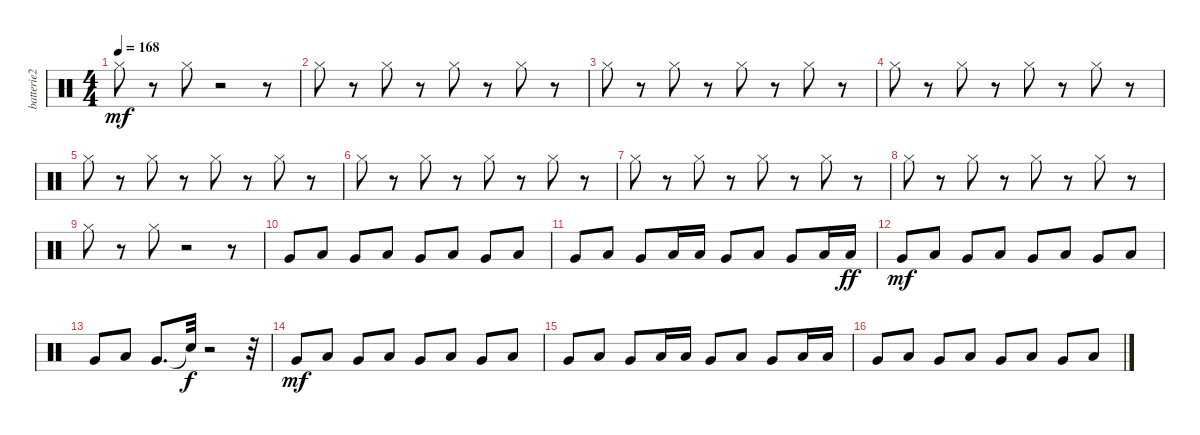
\track ("batterie2" "batterie2") {instrument percussion}
\staff {score}
\articulation defaults
\ts (4 4)
\tempo 168
\clef neutral
\ks c "Hi-Hat (closed)".8{dy mf}
r.8 "Hi-Hat (closed)".8 r.2 r.8 |
"Hi-Hat (closed)".8 r.8 "Hi-Hat (closed)".8 r.8 "Hi-Hat (closed)".8 r.8 "Hi-Hat (closed)".8 r.8 |
"Hi-Hat (closed)".8 r.8 "Hi-Hat (closed)".8 r.8 "Hi-Hat (closed)".8 r.8 "Hi-Hat (closed)".8 r.8 |
"Hi-Hat (closed)".8 r.8 "Hi-Hat (closed)".8 r.8 "Hi-Hat (closed)".8 r.8 "Hi-Hat (closed)".8 r.8 |
"Hi-Hat (closed)".8 r.8 "Hi-Hat (closed)".8 r.8 "Hi-Hat (closed)".8 r.8 "Hi-Hat (closed)".8 r.8 |
"Hi-Hat (closed)".8 r.8 "Hi-Hat (closed)".8 r.8 "Hi-Hat (closed)".8 r.8 "Hi-Hat (closed)".8 r.8 |
"Hi-Hat (closed)".8 r.8 "Hi-Hat (closed)".8 r.8 "Hi-Hat (closed)".8 r.8 "Hi-Hat (closed)".8 r.8 |
"Hi-Hat (closed)".8 r.8 "Hi-Hat (closed)".8 r.8 "Hi-Hat (closed)".8 r.8 "Hi-Hat (closed)".8 r.8 |
"Hi-Hat (closed)".8 r.8 "Hi-Hat (closed)".8 r.2 r.8 |
"Very Low Tom (hit)".8 "Low Tom (hit)".8 "Very Low Tom (hit)".8 "Low Tom (hit)".8 "Very Low Tom (hit)".8 "Low Tom (hit)".8 "Very Low Tom (hit)".8 "Low Tom (hit)".8 |
"Very Low Tom (hit)".8 "Low Tom (hit)".8 "Very Low Tom (hit)".8 "Low Tom (hit)".16 "Low Tom (hit)".16 "Very Low Tom (hit)".8 "Low Tom (hit)".8 "Very Low Tom (hit)".8 "Low Tom (hit)".16 "Low Tom (hit)".16{dy ff} |
"Very Low Tom (hit)".8{dy mf} "Low Tom (hit)".8 "Very Low Tom (hit)".8 "Low Tom (hit)".8 "Very Low Tom (hit)".8 "Low Tom (hit)".8 "Very Low Tom (hit)".8 "Low Tom (hit)".8 |
"Very Low Tom (hit)".8 "Low Tom (hit)".8 "Very Low Tom (hit)".8{d} "Snare (hit)"{t}.32{dy f} r.2 r.32 |
"Very Low Tom (hit)".8{dy mf} "Low Tom (hit)".8 "Very Low Tom (hit)".8 "Low Tom (hit)".8 "Very Low Tom (hit)".8 "Low Tom (hit)".8 "Very Low Tom (hit)".8 "Low Tom (hit)".8 |
"Very Low Tom (hit)".8 "Low Tom (hit)".8 "Very Low Tom (hit)".8 "Low Tom (hit)".16 "Low Tom (hit)".16 "Very Low Tom (hit)".8 "Low Tom (hit)".8 "Very Low Tom (hit)".8 "Low Tom (hit)".16 "Low Tom (hit)".16 |
"Very Low Tom (hit)".8 "Low Tom (hit)".8 "Very Low Tom (hit)".8 "Low Tom (hit)".8 "Very Low Tom (hit)".8 "Low Tom (hit)".8 "Very Low Tom (hit)".8 "Low Tom (hit)".8
